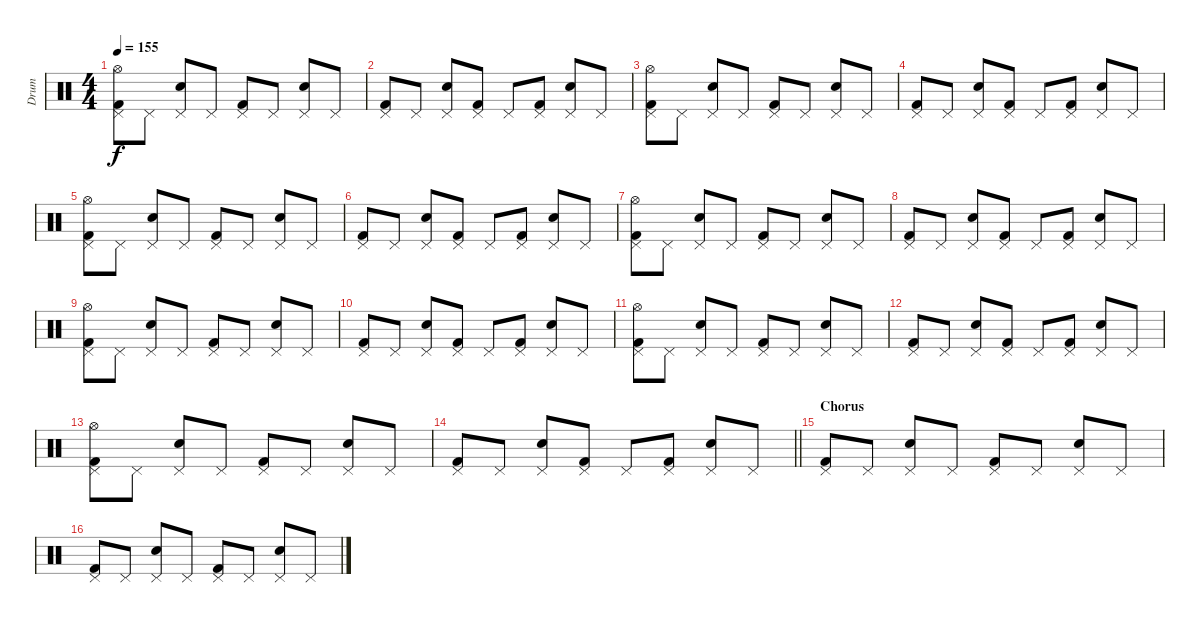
\track ("Drum" "Drum") {instrument percussion}
\staff {score}
\articulation defaults
\ts (4 4)
\tempo 155
\clef neutral
\ks c
("Kick (hit) 2" "Pedal Hi-Hat (hit)" "Hi-Hat (open)").8{dy f} "Pedal Hi-Hat (hit)".8 ("Electric Snare (hit)" "Pedal Hi-Hat (hit)").8 "Pedal Hi-Hat (hit)".8 ("Kick (hit) 2" "Pedal Hi-Hat (hit)").8 "Pedal Hi-Hat (hit)".8 ("Electric Snare (hit)" "Pedal Hi-Hat (hit)").8 "Pedal Hi-Hat (hit)".8 |
("Kick (hit) 2" "Pedal Hi-Hat (hit)").8 "Pedal Hi-Hat (hit)".8 ("Electric Snare (hit)" "Pedal Hi-Hat (hit)").8 ("Kick (hit) 2" "Pedal Hi-Hat (hit)").8 "Pedal Hi-Hat (hit)".8 ("Kick (hit) 2" "Pedal Hi-Hat (hit)").8 ("Electric Snare (hit)" "Pedal Hi-Hat (hit)").8 "Pedal Hi-Hat (hit)".8 |
("Kick (hit) 2" "Pedal Hi-Hat (hit)" "Hi-Hat (open)").8 "Pedal Hi-Hat (hit)".8 ("Electric Snare (hit)" "Pedal Hi-Hat (hit)").8 "Pedal Hi-Hat (hit)".8 ("Kick (hit) 2" "Pedal Hi-Hat (hit)").8 "Pedal Hi-Hat (hit)".8 ("Electric Snare (hit)" "Pedal Hi-Hat (hit)").8 "Pedal Hi-Hat (hit)".8 |
("Kick (hit) 2" "Pedal Hi-Hat (hit)").8 "Pedal Hi-Hat (hit)".8 ("Electric Snare (hit)" "Pedal Hi-Hat (hit)").8 ("Kick (hit) 2" "Pedal Hi-Hat (hit)").8 "Pedal Hi-Hat (hit)".8 ("Kick (hit) 2" "Pedal Hi-Hat (hit)").8 ("Electric Snare (hit)" "Pedal Hi-Hat (hit)").8 "Pedal Hi-Hat (hit)".8 |
("Kick (hit) 2" "Pedal Hi-Hat (hit)" "Hi-Hat (open)").8 "Pedal Hi-Hat (hit)".8 ("Electric Snare (hit)" "Pedal Hi-Hat (hit)").8 "Pedal Hi-Hat (hit)".8 ("Kick (hit) 2" "Pedal Hi-Hat (hit)").8 "Pedal Hi-Hat (hit)".8 ("Electric Snare (hit)" "Pedal Hi-Hat (hit)").8 "Pedal Hi-Hat (hit)".8 |
("Kick (hit) 2" "Pedal Hi-Hat (hit)").8 "Pedal Hi-Hat (hit)".8 ("Electric Snare (hit)" "Pedal Hi-Hat (hit)").8 ("Kick (hit) 2" "Pedal Hi-Hat (hit)").8 "Pedal Hi-Hat (hit)".8 ("Kick (hit) 2" "Pedal Hi-Hat (hit)").8 ("Electric Snare (hit)" "Pedal Hi-Hat (hit)").8 "Pedal Hi-Hat (hit)".8 |
("Kick (hit) 2" "Pedal Hi-Hat (hit)" "Hi-Hat (open)").8 "Pedal Hi-Hat (hit)".8 ("Electric Snare (hit)" "Pedal Hi-Hat (hit)").8 "Pedal Hi-Hat (hit)".8 ("Kick (hit) 2" "Pedal Hi-Hat (hit)").8 "Pedal Hi-Hat (hit)".8 ("Electric Snare (hit)" "Pedal Hi-Hat (hit)").8 "Pedal Hi-Hat (hit)".8 |
("Kick (hit) 2" "Pedal Hi-Hat (hit)").8 "Pedal Hi-Hat (hit)".8 ("Electric Snare (hit)" "Pedal Hi-Hat (hit)").8 ("Kick (hit) 2" "Pedal Hi-Hat (hit)").8 "Pedal Hi-Hat (hit)".8 ("Kick (hit) 2" "Pedal Hi-Hat (hit)").8 ("Electric Snare (hit)" "Pedal Hi-Hat (hit)").8 "Pedal Hi-Hat (hit)".8 |
("Kick (hit) 2" "Pedal Hi-Hat (hit)" "Hi-Hat (open)").8 "Pedal Hi-Hat (hit)".8 ("Electric Snare (hit)" "Pedal Hi-Hat (hit)").8 "Pedal Hi-Hat (hit)".8 ("Kick (hit) 2" "Pedal Hi-Hat (hit)").8 "Pedal Hi-Hat (hit)".8 ("Electric Snare (hit)" "Pedal Hi-Hat (hit)").8 "Pedal Hi-Hat (hit)".8 |
("Kick (hit) 2" "Pedal Hi-Hat (hit)").8 "Pedal Hi-Hat (hit)".8 ("Electric Snare (hit)" "Pedal Hi-Hat (hit)").8 ("Kick (hit) 2" "Pedal Hi-Hat (hit)").8 "Pedal Hi-Hat (hit)".8 ("Kick (hit) 2" "Pedal Hi-Hat (hit)").8 ("Electric Snare (hit)" "Pedal Hi-Hat (hit)").8 "Pedal Hi-Hat (hit)".8 |
("Kick (hit) 2" "Pedal Hi-Hat (hit)" "Hi-Hat (open)").8 "Pedal Hi-Hat (hit)".8 ("Electric Snare (hit)" "Pedal Hi-Hat (hit)").8 "Pedal Hi-Hat (hit)".8 ("Kick (hit) 2" "Pedal Hi-Hat (hit)").8 "Pedal Hi-Hat (hit)".8 ("Electric Snare (hit)" "Pedal Hi-Hat (hit)").8 "Pedal Hi-Hat (hit)".8 |
("Kick (hit) 2" "Pedal Hi-Hat (hit)").8 "Pedal Hi-Hat (hit)".8 ("Electric Snare (hit)" "Pedal Hi-Hat (hit)").8 ("Kick (hit) 2" "Pedal Hi-Hat (hit)").8 "Pedal Hi-Hat (hit)".8 ("Kick (hit) 2" "Pedal Hi-Hat (hit)").8 ("Electric Snare (hit)" "Pedal Hi-Hat (hit)").8 "Pedal Hi-Hat (hit)".8 |
("Kick (hit) 2" "Pedal Hi-Hat (hit)" "Hi-Hat (open)").8 "Pedal Hi-Hat (hit)".8 ("Electric Snare (hit)" "Pedal Hi-Hat (hit)").8 "Pedal Hi-Hat (hit)".8 ("Kick (hit) 2" "Pedal Hi-Hat (hit)").8 "Pedal Hi-Hat (hit)".8 ("Electric Snare (hit)" "Pedal Hi-Hat (hit)").8 "Pedal Hi-Hat (hit)".8 |
\barLineRight lightlight
("Kick (hit) 2" "Pedal Hi-Hat (hit)").8 "Pedal Hi-Hat (hit)".8 ("Electric Snare (hit)" "Pedal Hi-Hat (hit)").8 ("Kick (hit) 2" "Pedal Hi-Hat (hit)").8 "Pedal Hi-Hat (hit)".8 ("Kick (hit) 2" "Pedal Hi-Hat (hit)").8 ("Electric Snare (hit)" "Pedal Hi-Hat (hit)").8 "Pedal Hi-Hat (hit)".8 |
\section ("" "Chorus")
("Kick (hit) 2" "Pedal Hi-Hat (hit)").8 "Pedal Hi-Hat (hit)".8 ("Electric Snare (hit)" "Pedal Hi-Hat (hit)").8 "Pedal Hi-Hat (hit)".8 ("Kick (hit) 2" "Pedal Hi-Hat (hit)").8 "Pedal Hi-Hat (hit)".8 ("Electric Snare (hit)" "Pedal Hi-Hat (hit)").8 "Pedal Hi-Hat (hit)".8 |
("Kick (hit) 2" "Pedal Hi-Hat (hit)").8 "Pedal Hi-Hat (hit)".8 ("Electric Snare (hit)" "Pedal Hi-Hat (hit)").8 "Pedal Hi-Hat (hit)".8 ("Kick (hit) 2" "Pedal Hi-Hat (hit)").8 "Pedal Hi-Hat (hit)".8 ("Electric Snare (hit)" "Pedal Hi-Hat (hit)").8 "Pedal Hi-Hat (hit)".8
